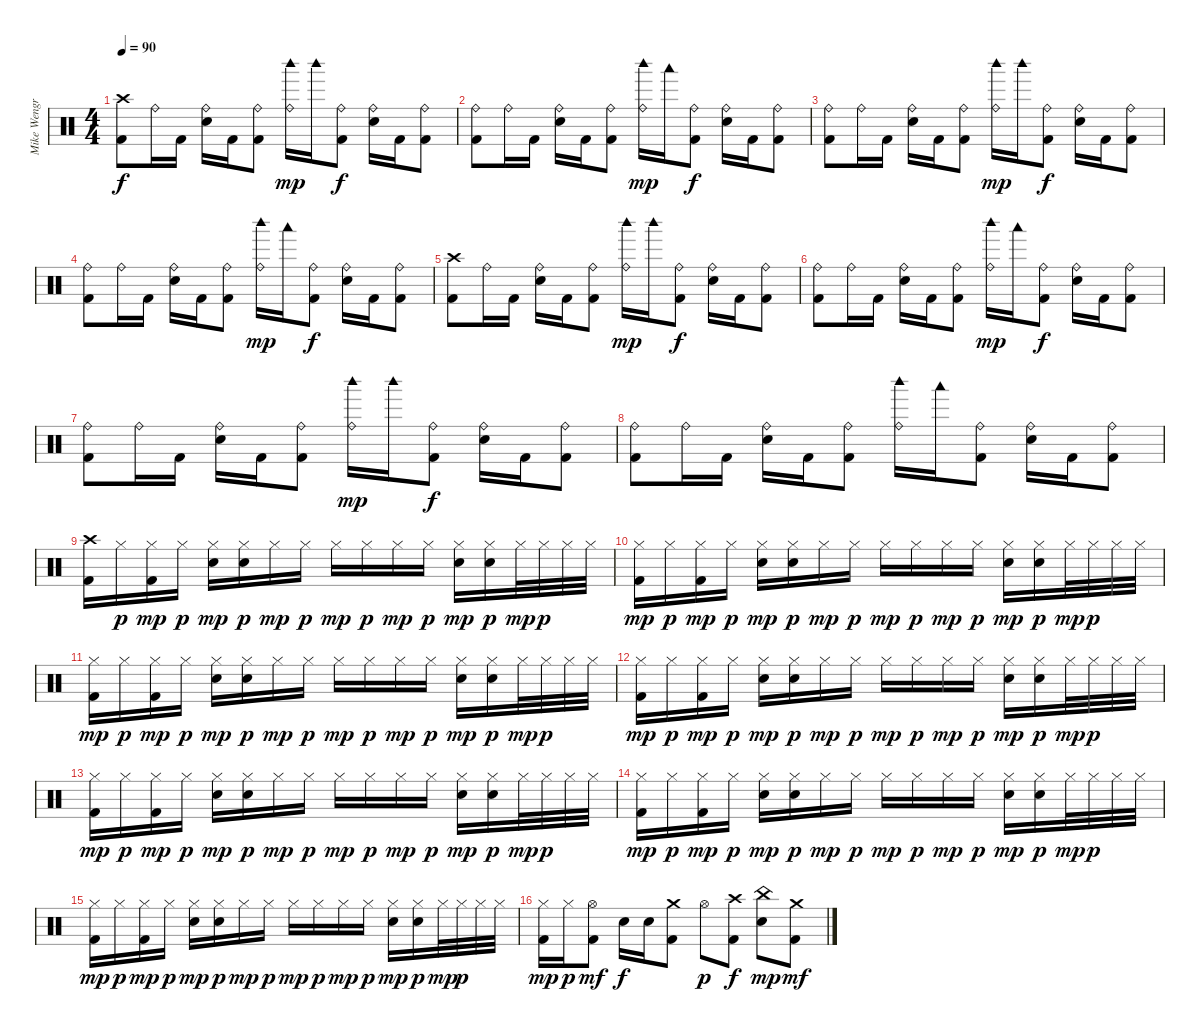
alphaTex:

\track ("Mike Wengren - Drums" "Mike Wengr") {instrument percussion}
\staff {score}
\articulation defaults
\ts (4 4)
\tempo 90
\clef neutral
\ks c
("Crash high (hit)" "Kick (hit) 2").8{dy f} "Ride (bell)".16 "Kick (hit) 2".16 ("Ride (bell)" "Electric Snare (hit)").16 "Kick (hit) 2".16 ("Ride (bell)" "Kick (hit) 2").8 ("Woodblock high (hit)" "Ride (bell)").16{dy mp} "Woodblock high (hit)".16 ("Ride (bell)" "Kick (hit) 2").8{dy f} ("Ride (bell)" "Electric Snare (hit)").16 "Kick (hit) 2".16 ("Ride (bell)" "Kick (hit) 2").8 |
("Ride (bell)" "Kick (hit) 2").8 "Ride (bell)".16 "Kick (hit) 2".16 ("Ride (bell)" "Electric Snare (hit)").16 "Kick (hit) 2".16 ("Ride (bell)" "Kick (hit) 2").8 ("Woodblock high (hit)" "Ride (bell)").16{dy mp} "Woodblock low (hit)".16 ("Ride (bell)" "Kick (hit) 2").8{dy f} ("Ride (bell)" "Electric Snare (hit)").16 "Kick (hit) 2".16 ("Ride (bell)" "Kick (hit) 2").8 |
("Ride (bell)" "Kick (hit) 2").8 "Ride (bell)".16 "Kick (hit) 2".16 ("Ride (bell)" "Electric Snare (hit)").16 "Kick (hit) 2".16 ("Ride (bell)" "Kick (hit) 2").8 ("Woodblock high (hit)" "Ride (bell)").16{dy mp} "Woodblock high (hit)".16 ("Ride (bell)" "Kick (hit) 2").8{dy f} ("Ride (bell)" "Electric Snare (hit)").16 "Kick (hit) 2".16 ("Ride (bell)" "Kick (hit) 2").8 |
("Ride (bell)" "Kick (hit) 2").8 "Ride (bell)".16 "Kick (hit) 2".16 ("Ride (bell)" "Electric Snare (hit)").16 "Kick (hit) 2".16 ("Ride (bell)" "Kick (hit) 2").8 ("Woodblock high (hit)" "Ride (bell)").16{dy mp} "Woodblock low (hit)".16 ("Ride (bell)" "Kick (hit) 2").8{dy f} ("Ride (bell)" "Electric Snare (hit)").16 "Kick (hit) 2".16 ("Ride (bell)" "Kick (hit) 2").8 |
("Crash high (hit)" "Kick (hit) 2").8 "Ride (bell)".16 "Kick (hit) 2".16 ("Ride (bell)" "Electric Snare (hit)").16 "Kick (hit) 2".16 ("Ride (bell)" "Kick (hit) 2").8 ("Woodblock high (hit)" "Ride (bell)").16{dy mp} "Woodblock high (hit)".16 ("Ride (bell)" "Kick (hit) 2").8{dy f} ("Ride (bell)" "Electric Snare (hit)").16 "Kick (hit) 2".16 ("Ride (bell)" "Kick (hit) 2").8 |
("Ride (bell)" "Kick (hit) 2").8 "Ride (bell)".16 "Kick (hit) 2".16 ("Ride (bell)" "Electric Snare (hit)").16 "Kick (hit) 2".16 ("Ride (bell)" "Kick (hit) 2").8 ("Woodblock high (hit)" "Ride (bell)").16{dy mp} "Woodblock low (hit)".16 ("Ride (bell)" "Kick (hit) 2").8{dy f} ("Ride (bell)" "Electric Snare (hit)").16 "Kick (hit) 2".16 ("Ride (bell)" "Kick (hit) 2").8 |
("Ride (bell)" "Kick (hit) 2").8 "Ride (bell)".16 "Kick (hit) 2".16 ("Ride (bell)" "Electric Snare (hit)").16 "Kick (hit) 2".16 ("Ride (bell)" "Kick (hit) 2").8 ("Woodblock high (hit)" "Ride (bell)").16{dy mp} "Woodblock high (hit)".16 ("Ride (bell)" "Kick (hit) 2").8{dy f} ("Ride (bell)" "Electric Snare (hit)").16 "Kick (hit) 2".16 ("Ride (bell)" "Kick (hit) 2").8 |
("Ride (bell)" "Kick (hit) 2").8 "Ride (bell)".16 "Kick (hit) 2".16 ("Ride (bell)" "Electric Snare (hit)").16 "Kick (hit) 2".16 ("Ride (bell)" "Kick (hit) 2").8 ("Woodblock high (hit)" "Ride (bell)").16 "Woodblock low (hit)".16 ("Ride (bell)" "Kick (hit) 2").8 ("Ride (bell)" "Electric Snare (hit)").16 "Kick (hit) 2".16 ("Ride (bell)" "Kick (hit) 2").8 |
("Crash high (hit)" "Kick (hit) 2").16 "Hi-Hat (closed)".16{dy p} ("Hi-Hat (closed)" "Kick (hit) 2").16{dy mp} "Hi-Hat (closed)".16{dy p} ("Hi-Hat (closed)" "Electric Snare (hit)").16{dy mp} ("Hi-Hat (closed)" "Electric Snare (hit)").16{dy p} "Hi-Hat (closed)".16{dy mp} "Hi-Hat (closed)".16{dy p} "Hi-Hat (closed)".16{dy mp} "Hi-Hat (closed)".16{dy p} "Hi-Hat (closed)".16{dy mp} "Hi-Hat (closed)".16{dy p} ("Hi-Hat (closed)" "Electric Snare (hit)").16{dy mp} ("Hi-Hat (closed)" "Electric Snare (hit)").16{dy p} "Hi-Hat (closed)".32{dy mp} "Hi-Hat (closed)".32{dy p} "Hi-Hat (closed)".32 "Hi-Hat (closed)".32 |
("Hi-Hat (closed)" "Kick (hit) 2").16{dy mp} "Hi-Hat (closed)".16{dy p} ("Hi-Hat (closed)" "Kick (hit) 2").16{dy mp} "Hi-Hat (closed)".16{dy p} ("Hi-Hat (closed)" "Electric Snare (hit)").16{dy mp} ("Hi-Hat (closed)" "Electric Snare (hit)").16{dy p} "Hi-Hat (closed)".16{dy mp} "Hi-Hat (closed)".16{dy p} "Hi-Hat (closed)".16{dy mp} "Hi-Hat (closed)".16{dy p} "Hi-Hat (closed)".16{dy mp} "Hi-Hat (closed)".16{dy p} ("Hi-Hat (closed)" "Electric Snare (hit)").16{dy mp} ("Hi-Hat (closed)" "Electric Snare (hit)").16{dy p} "Hi-Hat (closed)".32{dy mp} "Hi-Hat (closed)".32{dy p} "Hi-Hat (closed)".32 "Hi-Hat (closed)".32 |
("Hi-Hat (closed)" "Kick (hit) 2").16{dy mp} "Hi-Hat (closed)".16{dy p} ("Hi-Hat (closed)" "Kick (hit) 2").16{dy mp} "Hi-Hat (closed)".16{dy p} ("Hi-Hat (closed)" "Electric Snare (hit)").16{dy mp} ("Hi-Hat (closed)" "Electric Snare (hit)").16{dy p} "Hi-Hat (closed)".16{dy mp} "Hi-Hat (closed)".16{dy p} "Hi-Hat (closed)".16{dy mp} "Hi-Hat (closed)".16{dy p} "Hi-Hat (closed)".16{dy mp} "Hi-Hat (closed)".16{dy p} ("Hi-Hat (closed)" "Electric Snare (hit)").16{dy mp} ("Hi-Hat (closed)" "Electric Snare (hit)").16{dy p} "Hi-Hat (closed)".32{dy mp} "Hi-Hat (closed)".32{dy p} "Hi-Hat (closed)".32 "Hi-Hat (closed)".32 |
("Hi-Hat (closed)" "Kick (hit) 2").16{dy mp} "Hi-Hat (closed)".16{dy p} ("Hi-Hat (closed)" "Kick (hit) 2").16{dy mp} "Hi-Hat (closed)".16{dy p} ("Hi-Hat (closed)" "Electric Snare (hit)").16{dy mp} ("Hi-Hat (closed)" "Electric Snare (hit)").16{dy p} "Hi-Hat (closed)".16{dy mp} "Hi-Hat (closed)".16{dy p} "Hi-Hat (closed)".16{dy mp} "Hi-Hat (closed)".16{dy p} "Hi-Hat (closed)".16{dy mp} "Hi-Hat (closed)".16{dy p} ("Hi-Hat (closed)" "Electric Snare (hit)").16{dy mp} ("Hi-Hat (closed)" "Electric Snare (hit)").16{dy p} "Hi-Hat (closed)".32{dy mp} "Hi-Hat (closed)".32{dy p} "Hi-Hat (closed)".32 "Hi-Hat (closed)".32 |
("Hi-Hat (closed)" "Kick (hit) 2").16{dy mp} "Hi-Hat (closed)".16{dy p} ("Hi-Hat (closed)" "Kick (hit) 2").16{dy mp} "Hi-Hat (closed)".16{dy p} ("Hi-Hat (closed)" "Electric Snare (hit)").16{dy mp} ("Hi-Hat (closed)" "Electric Snare (hit)").16{dy p} "Hi-Hat (closed)".16{dy mp} "Hi-Hat (closed)".16{dy p} "Hi-Hat (closed)".16{dy mp} "Hi-Hat (closed)".16{dy p} "Hi-Hat (closed)".16{dy mp} "Hi-Hat (closed)".16{dy p} ("Hi-Hat (closed)" "Electric Snare (hit)").16{dy mp} ("Hi-Hat (closed)" "Electric Snare (hit)").16{dy p} "Hi-Hat (closed)".32{dy mp} "Hi-Hat (closed)".32{dy p} "Hi-Hat (closed)".32 "Hi-Hat (closed)".32 |
("Hi-Hat (closed)" "Kick (hit) 2").16{dy mp} "Hi-Hat (closed)".16{dy p} ("Hi-Hat (closed)" "Kick (hit) 2").16{dy mp} "Hi-Hat (closed)".16{dy p} ("Hi-Hat (closed)" "Electric Snare (hit)").16{dy mp} ("Hi-Hat (closed)" "Electric Snare (hit)").16{dy p} "Hi-Hat (closed)".16{dy mp} "Hi-Hat (closed)".16{dy p} "Hi-Hat (closed)".16{dy mp} "Hi-Hat (closed)".16{dy p} "Hi-Hat (closed)".16{dy mp} "Hi-Hat (closed)".16{dy p} ("Hi-Hat (closed)" "Electric Snare (hit)").16{dy mp} ("Hi-Hat (closed)" "Electric Snare (hit)").16{dy p} "Hi-Hat (closed)".32{dy mp} "Hi-Hat (closed)".32{dy p} "Hi-Hat (closed)".32 "Hi-Hat (closed)".32 |
("Hi-Hat (closed)" "Kick (hit) 2").16{dy mp} "Hi-Hat (closed)".16{dy p} ("Hi-Hat (closed)" "Kick (hit) 2").16{dy mp} "Hi-Hat (closed)".16{dy p} ("Hi-Hat (closed)" "Electric Snare (hit)").16{dy mp} ("Hi-Hat (closed)" "Electric Snare (hit)").16{dy p} "Hi-Hat (closed)".16{dy mp} "Hi-Hat (closed)".16{dy p} "Hi-Hat (closed)".16{dy mp} "Hi-Hat (closed)".16{dy p} "Hi-Hat (closed)".16{dy mp} "Hi-Hat (closed)".16{dy p} ("Hi-Hat (closed)" "Electric Snare (hit)").16{dy mp} ("Hi-Hat (closed)" "Electric Snare (hit)").16{dy p} "Hi-Hat (closed)".32{dy mp} "Hi-Hat (closed)".32{dy p} "Hi-Hat (closed)".32 "Hi-Hat (closed)".32 |
("Hi-Hat (closed)" "Kick (hit) 2").16{dy mp} "Hi-Hat (closed)".16{dy p} ("Hi-Hat (open)" "Kick (hit) 2").8{dy mf} "Electric Snare (hit)".16{dy f} "Electric Snare (hit)".16 ("Crash medium (hit)" "Kick (hit) 2").8 "Hi-Hat (open)".8{dy p} ("Crash high (hit)" "Kick (hit) 2").8{dy f} ("China (hit)" "Electric Snare (hit)").8{dy mp} ("Crash medium (hit)" "Kick (hit) 2").8{dy mf}
